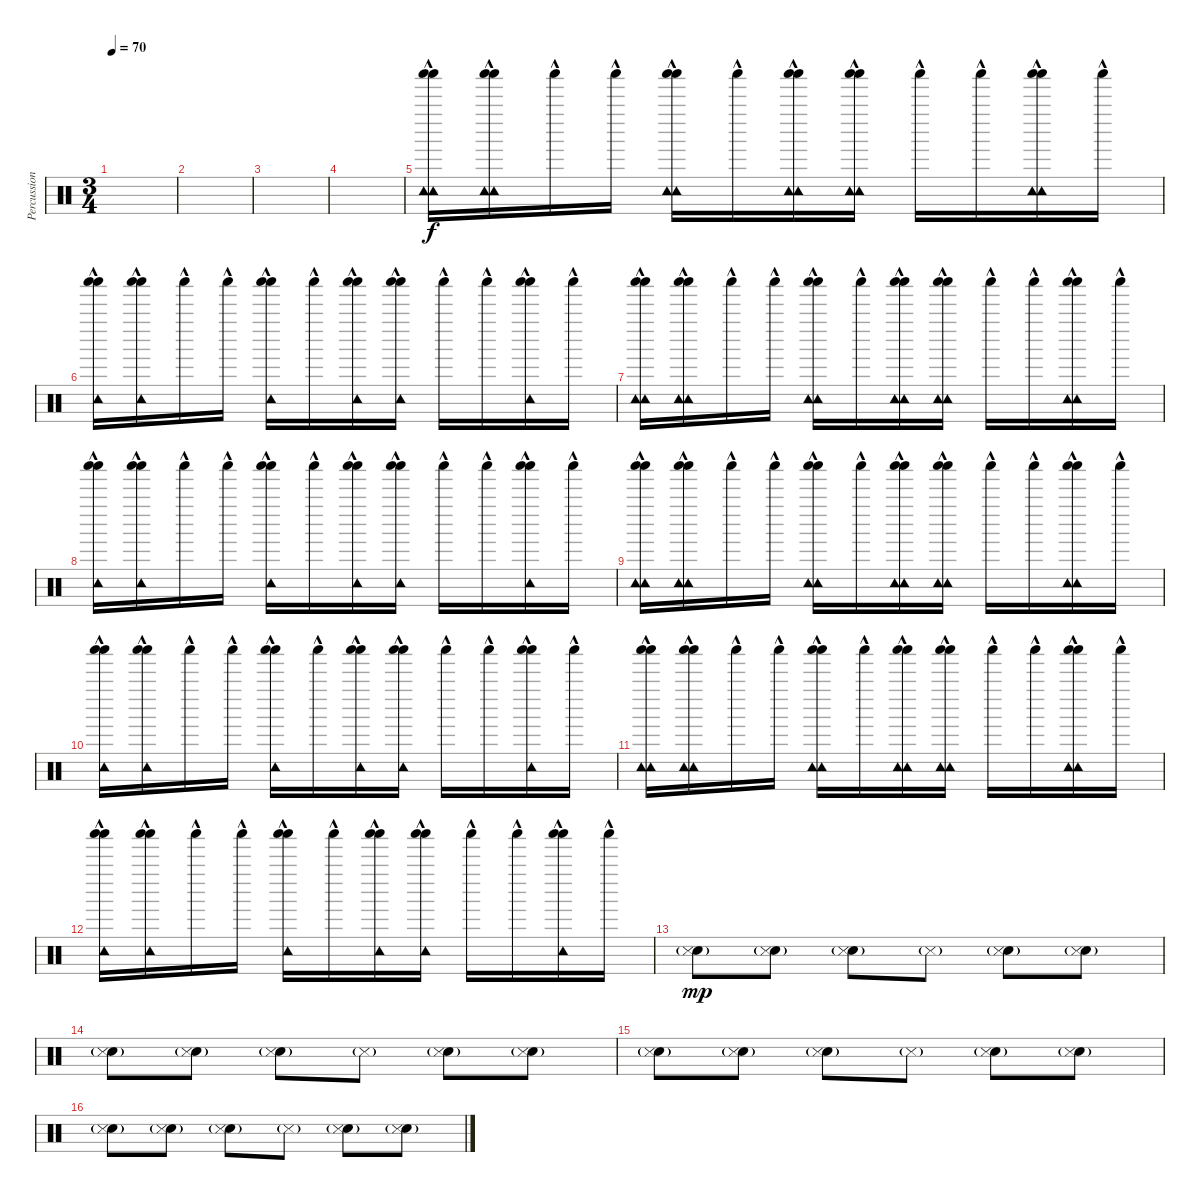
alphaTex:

\track ("Percussion" "Percussion") {instrument percussion}
\staff {score}
\articulation defaults
\ts (3 4)
\tempo 70
\clef neutral
\ks c
|
|
|
|
("Tambourine (hit)" "Shaker (hit)"{hac} "Shaker (hit)"{hac} "Tambourine (hit)"{hac}).16 ("Tambourine (hit)" "Shaker (hit)"{hac} "Shaker (hit)"{hac} "Tambourine (hit)"{hac}).16 "Shaker (hit)"{hac}.16 "Shaker (hit)"{hac}.16 ("Tambourine (hit)" "Shaker (hit)"{hac} "Shaker (hit)"{hac} "Tambourine (hit)"{hac}).16 "Shaker (hit)"{hac}.16 ("Tambourine (hit)" "Shaker (hit)"{hac} "Shaker (hit)"{hac} "Tambourine (hit)"{hac}).16 ("Tambourine (hit)" "Shaker (hit)"{hac} "Shaker (hit)"{hac} "Tambourine (hit)"{hac}).16 "Shaker (hit)"{hac}.16 "Shaker (hit)"{hac}.16 ("Tambourine (hit)" "Shaker (hit)"{hac} "Shaker (hit)"{hac} "Tambourine (hit)"{hac}).16 "Shaker (hit)"{hac}.16 |
("Shaker (hit)"{hac} "Shaker (hit)"{hac} "Tambourine (hit)"{hac}).16 ("Shaker (hit)"{hac} "Shaker (hit)"{hac} "Tambourine (hit)"{hac}).16 "Shaker (hit)"{hac}.16 "Shaker (hit)"{hac}.16 ("Shaker (hit)"{hac} "Shaker (hit)"{hac} "Tambourine (hit)"{hac}).16 "Shaker (hit)"{hac}.16 ("Shaker (hit)"{hac} "Shaker (hit)"{hac} "Tambourine (hit)"{hac}).16 ("Shaker (hit)"{hac} "Shaker (hit)"{hac} "Tambourine (hit)"{hac}).16 "Shaker (hit)"{hac}.16 "Shaker (hit)"{hac}.16 ("Shaker (hit)"{hac} "Shaker (hit)"{hac} "Tambourine (hit)"{hac}).16 "Shaker (hit)"{hac}.16 |
("Tambourine (hit)" "Shaker (hit)"{hac} "Shaker (hit)"{hac} "Tambourine (hit)"{hac}).16 ("Tambourine (hit)" "Shaker (hit)"{hac} "Shaker (hit)"{hac} "Tambourine (hit)"{hac}).16 "Shaker (hit)"{hac}.16 "Shaker (hit)"{hac}.16 ("Tambourine (hit)" "Shaker (hit)"{hac} "Shaker (hit)"{hac} "Tambourine (hit)"{hac}).16 "Shaker (hit)"{hac}.16 ("Tambourine (hit)" "Shaker (hit)"{hac} "Shaker (hit)"{hac} "Tambourine (hit)"{hac}).16 ("Tambourine (hit)" "Shaker (hit)"{hac} "Shaker (hit)"{hac} "Tambourine (hit)"{hac}).16 "Shaker (hit)"{hac}.16 "Shaker (hit)"{hac}.16 ("Tambourine (hit)" "Shaker (hit)"{hac} "Shaker (hit)"{hac} "Tambourine (hit)"{hac}).16 "Shaker (hit)"{hac}.16 |
("Shaker (hit)"{hac} "Shaker (hit)"{hac} "Tambourine (hit)"{hac}).16 ("Shaker (hit)"{hac} "Shaker (hit)"{hac} "Tambourine (hit)"{hac}).16 "Shaker (hit)"{hac}.16 "Shaker (hit)"{hac}.16 ("Shaker (hit)"{hac} "Shaker (hit)"{hac} "Tambourine (hit)"{hac}).16 "Shaker (hit)"{hac}.16 ("Shaker (hit)"{hac} "Shaker (hit)"{hac} "Tambourine (hit)"{hac}).16 ("Shaker (hit)"{hac} "Shaker (hit)"{hac} "Tambourine (hit)"{hac}).16 "Shaker (hit)"{hac}.16 "Shaker (hit)"{hac}.16 ("Shaker (hit)"{hac} "Shaker (hit)"{hac} "Tambourine (hit)"{hac}).16 "Shaker (hit)"{hac}.16 |
("Tambourine (hit)" "Shaker (hit)"{hac} "Shaker (hit)"{hac} "Tambourine (hit)"{hac}).16 ("Tambourine (hit)" "Shaker (hit)"{hac} "Shaker (hit)"{hac} "Tambourine (hit)"{hac}).16 "Shaker (hit)"{hac}.16 "Shaker (hit)"{hac}.16 ("Tambourine (hit)" "Shaker (hit)"{hac} "Shaker (hit)"{hac} "Tambourine (hit)"{hac}).16 "Shaker (hit)"{hac}.16 ("Tambourine (hit)" "Shaker (hit)"{hac} "Shaker (hit)"{hac} "Tambourine (hit)"{hac}).16 ("Tambourine (hit)" "Shaker (hit)"{hac} "Shaker (hit)"{hac} "Tambourine (hit)"{hac}).16 "Shaker (hit)"{hac}.16 "Shaker (hit)"{hac}.16 ("Tambourine (hit)" "Shaker (hit)"{hac} "Shaker (hit)"{hac} "Tambourine (hit)"{hac}).16 "Shaker (hit)"{hac}.16 |
("Shaker (hit)"{hac} "Shaker (hit)"{hac} "Tambourine (hit)"{hac}).16 ("Shaker (hit)"{hac} "Shaker (hit)"{hac} "Tambourine (hit)"{hac}).16 "Shaker (hit)"{hac}.16 "Shaker (hit)"{hac}.16 ("Shaker (hit)"{hac} "Shaker (hit)"{hac} "Tambourine (hit)"{hac}).16 "Shaker (hit)"{hac}.16 ("Shaker (hit)"{hac} "Shaker (hit)"{hac} "Tambourine (hit)"{hac}).16 ("Shaker (hit)"{hac} "Shaker (hit)"{hac} "Tambourine (hit)"{hac}).16 "Shaker (hit)"{hac}.16 "Shaker (hit)"{hac}.16 ("Shaker (hit)"{hac} "Shaker (hit)"{hac} "Tambourine (hit)"{hac}).16 "Shaker (hit)"{hac}.16 |
("Tambourine (hit)" "Shaker (hit)"{hac} "Shaker (hit)"{hac} "Tambourine (hit)"{hac}).16 ("Tambourine (hit)" "Shaker (hit)"{hac} "Shaker (hit)"{hac} "Tambourine (hit)"{hac}).16 "Shaker (hit)"{hac}.16 "Shaker (hit)"{hac}.16 ("Tambourine (hit)" "Shaker (hit)"{hac} "Shaker (hit)"{hac} "Tambourine (hit)"{hac}).16 "Shaker (hit)"{hac}.16 ("Tambourine (hit)" "Shaker (hit)"{hac} "Shaker (hit)"{hac} "Tambourine (hit)"{hac}).16 ("Tambourine (hit)" "Shaker (hit)"{hac} "Shaker (hit)"{hac} "Tambourine (hit)"{hac}).16 "Shaker (hit)"{hac}.16 "Shaker (hit)"{hac}.16 ("Tambourine (hit)" "Shaker (hit)"{hac} "Shaker (hit)"{hac} "Tambourine (hit)"{hac}).16 "Shaker (hit)"{hac}.16 |
("Shaker (hit)"{hac} "Shaker (hit)"{hac} "Tambourine (hit)"{hac}).16 ("Shaker (hit)"{hac} "Shaker (hit)"{hac} "Tambourine (hit)"{hac}).16 "Shaker (hit)"{hac}.16 "Shaker (hit)"{hac}.16 ("Shaker (hit)"{hac} "Shaker (hit)"{hac} "Tambourine (hit)"{hac}).16 "Shaker (hit)"{hac}.16 ("Shaker (hit)"{hac} "Shaker (hit)"{hac} "Tambourine (hit)"{hac}).16 ("Shaker (hit)"{hac} "Shaker (hit)"{hac} "Tambourine (hit)"{hac}).16 "Shaker (hit)"{hac}.16 "Shaker (hit)"{hac}.16 ("Shaker (hit)"{hac} "Shaker (hit)"{hac} "Tambourine (hit)"{hac}).16 "Shaker (hit)"{hac}.16 |
("Snare (hit) 2"{g} "Snare (side stick) 3"{g}).8{dy mp} ("Snare (hit) 2"{g} "Snare (side stick) 3"{g}).8 ("Snare (hit) 2"{g} "Snare (side stick) 3"{g}).8 "Snare (side stick) 3"{g}.8 ("Snare (hit) 2"{g} "Snare (side stick) 3"{g}).8 ("Snare (hit) 2"{g} "Snare (side stick) 3"{g}).8 |
("Snare (hit) 2"{g} "Snare (side stick) 3"{g}).8 ("Snare (hit) 2"{g} "Snare (side stick) 3"{g}).8 ("Snare (hit) 2"{g} "Snare (side stick) 3"{g}).8 "Snare (side stick) 3"{g}.8 ("Snare (hit) 2"{g} "Snare (side stick) 3"{g}).8 ("Snare (hit) 2"{g} "Snare (side stick) 3"{g}).8 |
("Snare (hit) 2"{g} "Snare (side stick) 3"{g}).8 ("Snare (hit) 2"{g} "Snare (side stick) 3"{g}).8 ("Snare (hit) 2"{g} "Snare (side stick) 3"{g}).8 "Snare (side stick) 3"{g}.8 ("Snare (hit) 2"{g} "Snare (side stick) 3"{g}).8 ("Snare (hit) 2"{g} "Snare (side stick) 3"{g}).8 |
("Snare (hit) 2"{g} "Snare (side stick) 3"{g}).8 ("Snare (hit) 2"{g} "Snare (side stick) 3"{g}).8 ("Snare (hit) 2"{g} "Snare (side stick) 3"{g}).8 "Snare (side stick) 3"{g}.8 ("Snare (hit) 2"{g} "Snare (side stick) 3"{g}).8 ("Snare (hit) 2"{g} "Snare (side stick) 3"{g}).8
